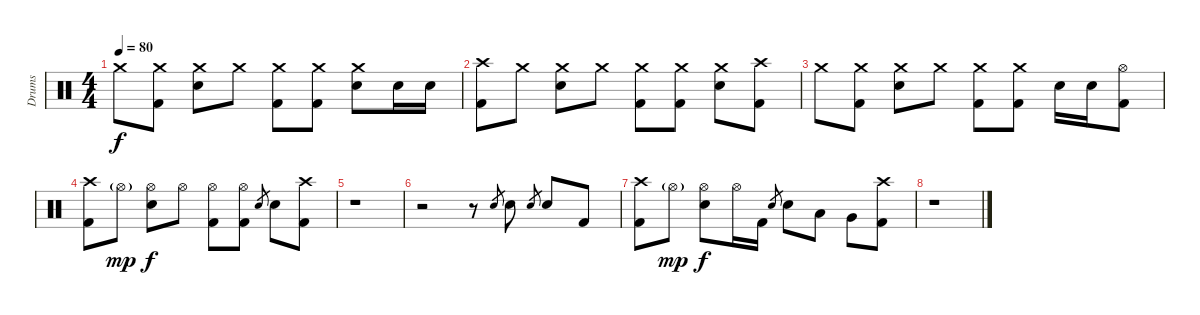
\track ("Drums" "Drums") {instrument percussion}
\staff {score}
\articulation defaults
\ts (4 4)
\tempo 80
\clef neutral
\ks c "Crash medium (hit)".8{dy f}
("Crash medium (hit)" "Kick (hit) 2").8 ("Crash medium (hit)" "Snare (hit) 2").8 "Crash medium (hit)".8 ("Crash medium (hit)" "Kick (hit) 2").8 ("Crash medium (hit)" "Kick (hit) 2").8 ("Crash medium (hit)" "Snare (hit) 2").8 "Snare (hit) 2".16 "Snare (hit) 2".16 |
("Crash high (hit)" "Kick (hit) 2").8 "Crash medium (hit)".8 ("Crash medium (hit)" "Snare (hit) 2").8 "Crash medium (hit)".8 ("Crash medium (hit)" "Kick (hit) 2").8 ("Crash medium (hit)" "Kick (hit) 2").8 ("Crash medium (hit)" "Snare (hit) 2").8 ("Crash high (hit)" "Kick (hit) 2").8 |
"Crash medium (hit)".8 ("Crash medium (hit)" "Kick (hit) 2").8 ("Crash medium (hit)" "Snare (hit) 2").8 "Crash medium (hit)".8 ("Crash medium (hit)" "Kick (hit) 2").8 ("Crash medium (hit)" "Kick (hit) 2").8 "Snare (hit) 2".16 "Snare (hit) 2".16 ("Hi-Hat (open)" "Kick (hit) 2").8 |
("Crash high (hit)" "Kick (hit) 2").8 "Hi-Hat (open)"{g}.8{dy mp} ("Hi-Hat (open)" "Snare (hit) 2").8{dy f} "Hi-Hat (open)".8 ("Hi-Hat (open)" "Kick (hit) 2").8 ("Hi-Hat (open)" "Kick (hit) 2").8 "Snare (hit) 2".8{gr} "Snare (hit) 2".8 ("Crash high (hit)" "Kick (hit) 2").8 |
r.1 |
r.2 r.8 "Snare (hit) 2".8{gr} "Snare (hit) 2".8 "Snare (hit) 2".8{gr} "Snare (hit) 2".8 "Kick (hit) 2".8 |
("Crash high (hit)" "Kick (hit) 2").8 "Hi-Hat (open)"{g}.8{dy mp} ("Hi-Hat (open)" "Snare (hit) 2").8{dy f} "Hi-Hat (open)".16 "Kick (hit) 2".16 "Snare (hit) 2".8{gr} "Snare (hit) 2".8 "Low Tom (hit)".8 "Very Low Tom (hit)".8 ("Crash high (hit)" "Kick (hit) 2").8 |
r.1
